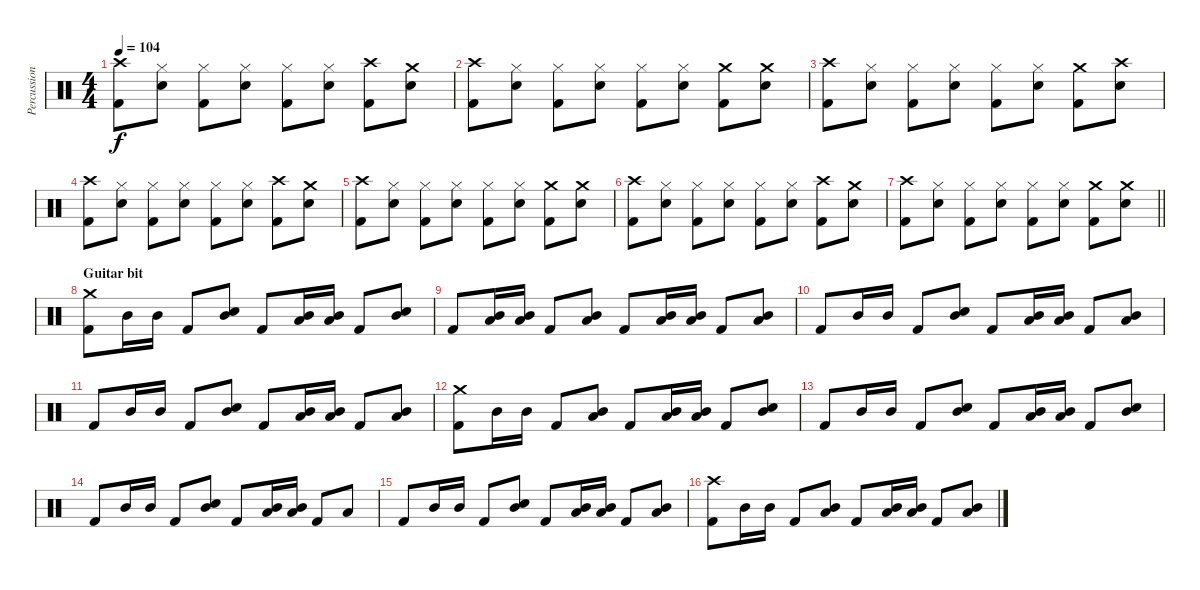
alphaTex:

\track ("Percussion" "Percussion") {instrument percussion}
\staff {score}
\articulation defaults
\ts (4 4)
\tempo 104
\clef neutral
\ks c
("Crash high (hit)" "Kick (hit) 2").8{dy f} ("Hi-Hat (closed)" "Snare (hit) 2").8 ("Hi-Hat (closed)" "Kick (hit) 2").8 ("Hi-Hat (closed)" "Snare (hit) 2").8 ("Hi-Hat (closed)" "Kick (hit) 2").8 ("Hi-Hat (closed)" "Snare (hit) 2").8 ("Crash high (hit)" "Kick (hit) 2").8 ("Crash medium (hit)" "Snare (hit) 2").8 |
("Crash high (hit)" "Kick (hit) 2").8 ("Hi-Hat (closed)" "Snare (hit) 2").8 ("Hi-Hat (closed)" "Kick (hit) 2").8 ("Hi-Hat (closed)" "Snare (hit) 2").8 ("Hi-Hat (closed)" "Kick (hit) 2").8 ("Hi-Hat (closed)" "Snare (hit) 2").8 ("Crash medium (hit)" "Kick (hit) 2").8 ("Crash medium (hit)" "Snare (hit) 2").8 |
("Crash high (hit)" "Kick (hit) 2").8 ("Hi-Hat (closed)" "Snare (hit) 2").8 ("Hi-Hat (closed)" "Kick (hit) 2").8 ("Hi-Hat (closed)" "Snare (hit) 2").8 ("Hi-Hat (closed)" "Kick (hit) 2").8 ("Hi-Hat (closed)" "Snare (hit) 2").8 ("Crash medium (hit)" "Kick (hit) 2").8 ("Crash high (hit)" "Snare (hit) 2").8 |
("Crash high (hit)" "Kick (hit) 2").8 ("Hi-Hat (closed)" "Snare (hit) 2").8 ("Hi-Hat (closed)" "Kick (hit) 2").8 ("Hi-Hat (closed)" "Snare (hit) 2").8 ("Hi-Hat (closed)" "Kick (hit) 2").8 ("Hi-Hat (closed)" "Snare (hit) 2").8 ("Crash high (hit)" "Kick (hit) 2").8 ("Crash medium (hit)" "Snare (hit) 2").8 |
("Crash high (hit)" "Kick (hit) 2").8 ("Hi-Hat (closed)" "Snare (hit) 2").8 ("Hi-Hat (closed)" "Kick (hit) 2").8 ("Hi-Hat (closed)" "Snare (hit) 2").8 ("Hi-Hat (closed)" "Kick (hit) 2").8 ("Hi-Hat (closed)" "Snare (hit) 2").8 ("Crash medium (hit)" "Kick (hit) 2").8 ("Crash medium (hit)" "Snare (hit) 2").8 |
("Crash high (hit)" "Kick (hit) 2").8 ("Hi-Hat (closed)" "Snare (hit) 2").8 ("Hi-Hat (closed)" "Kick (hit) 2").8 ("Hi-Hat (closed)" "Snare (hit) 2").8 ("Hi-Hat (closed)" "Kick (hit) 2").8 ("Hi-Hat (closed)" "Snare (hit) 2").8 ("Crash high (hit)" "Kick (hit) 2").8 ("Crash medium (hit)" "Snare (hit) 2").8 |
\barLineRight lightlight
("Crash high (hit)" "Kick (hit) 2").8 ("Hi-Hat (closed)" "Snare (hit) 2").8 ("Hi-Hat (closed)" "Kick (hit) 2").8 ("Hi-Hat (closed)" "Snare (hit) 2").8 ("Hi-Hat (closed)" "Kick (hit) 2").8 ("Hi-Hat (closed)" "Snare (hit) 2").8 ("Crash medium (hit)" "Kick (hit) 2").8 ("Crash medium (hit)" "Snare (hit) 2").8 |
\section ("" "Guitar bit")
("Crash medium (hit)" "Kick (hit) 2").8 "Mid Tom (hit)".16 "Mid Tom (hit)".16 "Kick (hit) 2".8 ("Mid Tom (hit)" "Snare (hit) 2").8 "Kick (hit) 2".8 ("Low Tom (hit)" "Mid Tom (hit)").16 ("Low Tom (hit)" "Mid Tom (hit)").16 "Kick (hit) 2".8 ("Mid Tom (hit)" "Snare (hit) 2").8 |
"Kick (hit) 2".8 ("Low Tom (hit)" "Mid Tom (hit)").16 ("Low Tom (hit)" "Mid Tom (hit)").16 "Kick (hit) 2".8 ("Low Tom (hit)" "Mid Tom (hit)").8 "Kick (hit) 2".8 ("Low Tom (hit)" "Mid Tom (hit)").16 ("Low Tom (hit)" "Mid Tom (hit)").16 "Kick (hit) 2".8 ("Low Tom (hit)" "Mid Tom (hit)").8 |
"Kick (hit) 2".8 "Mid Tom (hit)".16 "Mid Tom (hit)".16 "Kick (hit) 2".8 ("Mid Tom (hit)" "Snare (hit) 2").8 "Kick (hit) 2".8 ("Low Tom (hit)" "Mid Tom (hit)").16 ("Low Tom (hit)" "Mid Tom (hit)").16 "Kick (hit) 2".8 ("Low Tom (hit)" "Mid Tom (hit)").8 |
"Kick (hit) 2".8 "Mid Tom (hit)".16 "Mid Tom (hit)".16 "Kick (hit) 2".8 ("Mid Tom (hit)" "Snare (hit) 2").8 "Kick (hit) 2".8 ("Low Tom (hit)" "Mid Tom (hit)").16 ("Low Tom (hit)" "Mid Tom (hit)").16 "Kick (hit) 2".8 ("Low Tom (hit)" "Mid Tom (hit)").8 |
("Crash medium (hit)" "Kick (hit) 2").8 "Mid Tom (hit)".16 "Mid Tom (hit)".16 "Kick (hit) 2".8 ("Low Tom (hit)" "Mid Tom (hit)").8 "Kick (hit) 2".8 ("Low Tom (hit)" "Mid Tom (hit)").16 ("Low Tom (hit)" "Mid Tom (hit)").16 "Kick (hit) 2".8 ("Mid Tom (hit)" "Snare (hit) 2").8 |
"Kick (hit) 2".8 "Mid Tom (hit)".16 "Mid Tom (hit)".16 "Kick (hit) 2".8 ("Mid Tom (hit)" "Snare (hit) 2").8 "Kick (hit) 2".8 ("Low Tom (hit)" "Mid Tom (hit)").16 ("Low Tom (hit)" "Mid Tom (hit)").16 "Kick (hit) 2".8 ("Mid Tom (hit)" "Snare (hit) 2").8 |
"Kick (hit) 2".8 "Mid Tom (hit)".16 "Mid Tom (hit)".16 "Kick (hit) 2".8 ("Mid Tom (hit)" "Snare (hit) 2").8 "Kick (hit) 2".8 ("Low Tom (hit)" "Mid Tom (hit)").16 ("Low Tom (hit)" "Mid Tom (hit)").16 "Kick (hit) 2".8 "Low Tom (hit)".8 |
"Kick (hit) 2".8 "Mid Tom (hit)".16 "Mid Tom (hit)".16 "Kick (hit) 2".8 ("Mid Tom (hit)" "Snare (hit) 2").8 "Kick (hit) 2".8 ("Low Tom (hit)" "Mid Tom (hit)").16 ("Low Tom (hit)" "Mid Tom (hit)").16 "Kick (hit) 2".8 ("Low Tom (hit)" "Mid Tom (hit)").8 |
("Crash high (hit)" "Kick (hit) 2").8 "Mid Tom (hit)".16 "Mid Tom (hit)".16 "Kick (hit) 2".8 ("Low Tom (hit)" "Mid Tom (hit)").8 "Kick (hit) 2".8 ("Low Tom (hit)" "Mid Tom (hit)").16 ("Low Tom (hit)" "Mid Tom (hit)").16 "Kick (hit) 2".8 ("Low Tom (hit)" "Mid Tom (hit)").8
